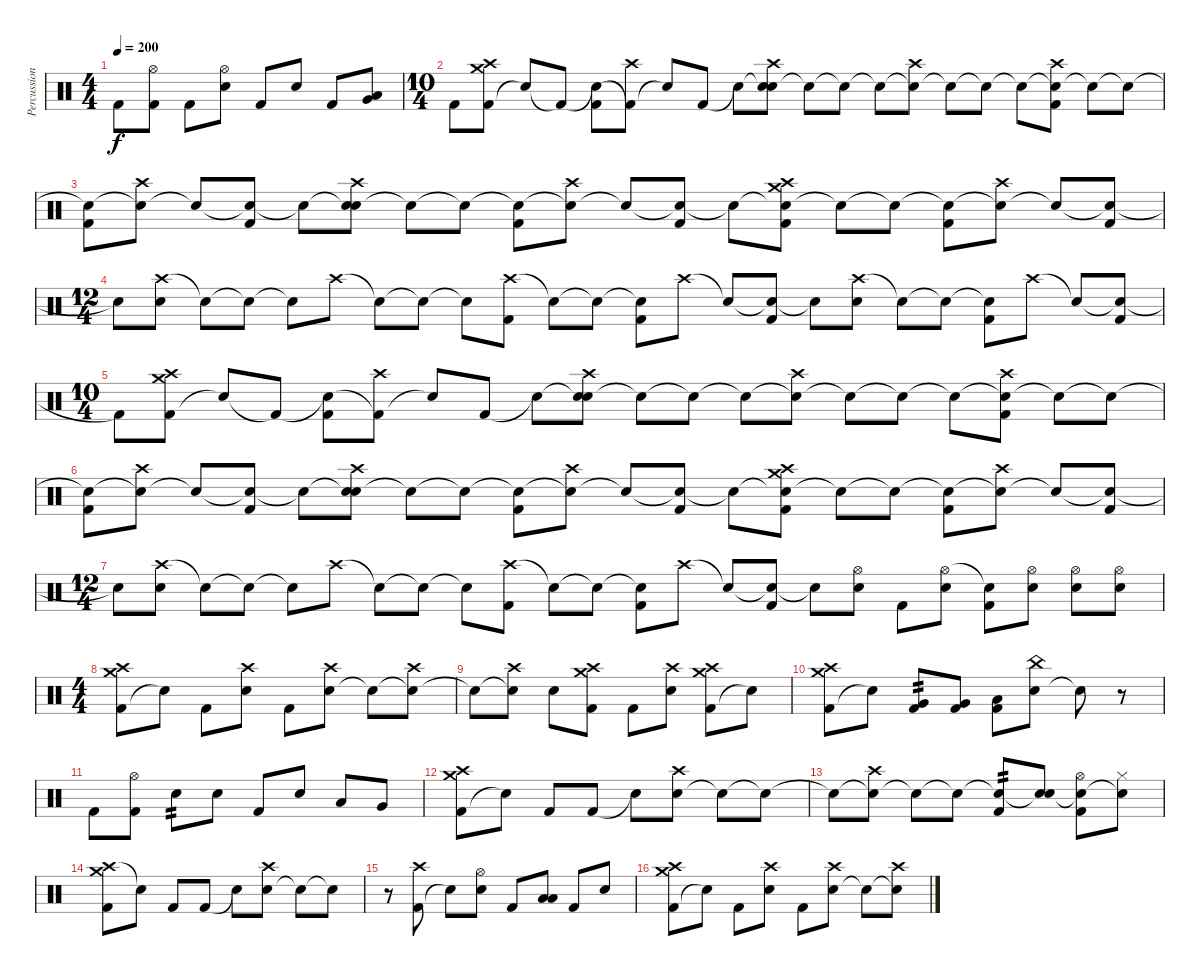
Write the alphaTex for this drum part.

\track ("Percussion" "Percussion") {instrument percussion}
\staff {score}
\articulation defaults
\ts (4 4)
\tempo 200
\clef neutral
\ks c "Kick (hit) 2".8{dy f}
("Hi-Hat (open)" "Kick (hit) 2"{t}).8 "Kick (hit) 2".8 ("Hi-Hat (open)" "Snare (hit) 2").8 "Kick (hit) 2".8 "Snare (hit) 2".8 "Kick (hit) 2".8 ("Low Floor Tom (hit)" "Very Low Tom (hit)").8 |
\ts (10 4)
"Kick (hit) 2".8 ("Kick (hit) 2" "Crash high (hit)" "Crash medium (hit)").8 "Snare (hit)"{t}.8 "Kick (hit) 2"{t}.8 ("Snare (hit)"{t} "Kick (hit) 2").8 ("Kick (hit) 2"{t} "Crash high (hit)").8 "Snare (hit)"{t}.8 "Kick (hit) 2".8 "Snare (hit)"{t}.8 ("Snare (hit)"{t} "Snare (hit) 2" "Crash high (hit)").8 "Snare (hit)"{t}.8 "Snare (hit)"{t}.8 "Snare (hit)"{t}.8 ("Snare (hit)"{t} "Crash high (hit)").8 "Snare (hit)"{t}.8 "Snare (hit)"{t}.8 "Snare (hit)"{t}.8 ("Snare (hit)"{t} "Kick (hit) 2" "Crash high (hit)").8 "Snare (hit)"{t}.8 "Snare (hit)"{t}.8 |
("Snare (hit)"{t} "Kick (hit) 2").8 ("Snare (hit)"{t} "Crash high (hit)").8 "Snare (hit)"{t}.8 ("Snare (hit)"{t} "Kick (hit) 2").8 "Snare (hit)"{t}.8 ("Snare (hit)"{t} "Crash high (hit)" "Snare (hit) 2").8 "Snare (hit)"{t}.8 "Snare (hit)"{t}.8 ("Snare (hit)"{t} "Kick (hit) 2").8 ("Snare (hit)"{t} "Crash high (hit)").8 "Snare (hit)"{t}.8 ("Snare (hit)"{t} "Kick (hit) 2").8 "Snare (hit)"{t}.8 ("Snare (hit)"{t} "Crash medium (hit)" "Crash high (hit)" "Kick (hit) 2").8 "Snare (hit)"{t}.8 "Snare (hit)"{t}.8 ("Snare (hit)"{t} "Kick (hit) 2").8 ("Snare (hit)"{t} "Crash high (hit)").8 "Snare (hit)"{t}.8 ("Snare (hit)"{t} "Kick (hit) 2").8 |
\ts (12 4)
"Snare (hit)"{t}.8 ("Crash high (hit)" "Snare (hit) 2").8 "Snare (hit)"{t}.8 "Snare (hit)"{t}.8 "Snare (hit)"{t}.8 "Crash high (hit)".8 "Snare (hit)"{t}.8 "Snare (hit)"{t}.8 "Snare (hit)"{t}.8 ("Crash high (hit)" "Kick (hit) 2").8 "Snare (hit)"{t}.8 "Snare (hit)"{t}.8 ("Snare (hit)"{t} "Kick (hit) 2").8 "Crash high (hit)".8 "Snare (hit)"{t}.8 ("Snare (hit)"{t} "Kick (hit) 2").8 "Snare (hit)"{t}.8 ("Crash high (hit)" "Snare (hit) 2").8 "Snare (hit)"{t}.8 "Snare (hit)"{t}.8 ("Snare (hit)"{t} "Kick (hit) 2").8 "Crash high (hit)".8 "Snare (hit)"{t}.8 ("Snare (hit)"{t} "Kick (hit) 2").8 |
\ts (10 4)
"Kick (hit) 2"{t}.8 ("Kick (hit) 2" "Crash high (hit)" "Crash medium (hit)").8 "Snare (hit)"{t}.8 "Kick (hit) 2"{t}.8 ("Snare (hit)"{t} "Kick (hit) 2").8 ("Kick (hit) 2"{t} "Crash high (hit)").8 "Snare (hit)"{t}.8 "Kick (hit) 2".8 "Snare (hit)"{t}.8 ("Snare (hit)"{t} "Snare (hit) 2" "Crash high (hit)").8 "Snare (hit)"{t}.8 "Snare (hit)"{t}.8 "Snare (hit)"{t}.8 ("Snare (hit)"{t} "Crash high (hit)").8 "Snare (hit)"{t}.8 "Snare (hit)"{t}.8 "Snare (hit)"{t}.8 ("Snare (hit)"{t} "Kick (hit) 2" "Crash high (hit)").8 "Snare (hit)"{t}.8 "Snare (hit)"{t}.8 |
("Snare (hit)"{t} "Kick (hit) 2").8 ("Snare (hit)"{t} "Crash high (hit)").8 "Snare (hit)"{t}.8 ("Snare (hit)"{t} "Kick (hit) 2").8 "Snare (hit)"{t}.8 ("Snare (hit)"{t} "Crash high (hit)" "Snare (hit) 2").8 "Snare (hit)"{t}.8 "Snare (hit)"{t}.8 ("Snare (hit)"{t} "Kick (hit) 2").8 ("Snare (hit)"{t} "Crash high (hit)").8 "Snare (hit)"{t}.8 ("Snare (hit)"{t} "Kick (hit) 2").8 "Snare (hit)"{t}.8 ("Snare (hit)"{t} "Crash medium (hit)" "Crash high (hit)" "Kick (hit) 2").8 "Snare (hit)"{t}.8 "Snare (hit)"{t}.8 ("Snare (hit)"{t} "Kick (hit) 2").8 ("Snare (hit)"{t} "Crash high (hit)").8 "Snare (hit)"{t}.8 ("Snare (hit)"{t} "Kick (hit) 2").8 |
\ts (12 4)
"Snare (hit)"{t}.8 ("Crash high (hit)" "Snare (hit) 2").8 "Snare (hit)"{t}.8 "Snare (hit)"{t}.8 "Snare (hit)"{t}.8 "Crash high (hit)".8 "Snare (hit)"{t}.8 "Snare (hit)"{t}.8 "Snare (hit)"{t}.8 ("Crash high (hit)" "Kick (hit) 2").8 "Snare (hit)"{t}.8 "Snare (hit)"{t}.8 ("Snare (hit)"{t} "Kick (hit) 2").8 "Crash high (hit)".8 "Snare (hit)"{t}.8 ("Snare (hit)"{t} "Kick (hit) 2").8 "Snare (hit)"{t}.8 ("Hi-Hat (open)" "Snare (hit) 2").8 "Kick (hit) 2".8 ("Hi-Hat (open)" "Snare (hit) 2").8 ("Snare (hit)"{t} "Kick (hit) 2").8 ("Hi-Hat (open)" "Snare (hit) 2").8 ("Hi-Hat (open)" "Snare (hit) 2").8 ("Hi-Hat (open)" "Snare (hit) 2").8 |
\ts (4 4)
("Kick (hit) 2" "Crash medium (hit)" "Crash high (hit)").8 "Snare (hit)"{t}.8 "Kick (hit) 2".8 ("Snare (hit) 2" "Crash high (hit)").8 "Kick (hit) 2".8 ("Snare (hit) 2" "Crash high (hit)").8 "Snare (hit)"{t}.8 ("Snare (hit)"{t} "Crash high (hit)").8 |
"Snare (hit)"{t}.8 ("Snare (hit)"{t} "Crash high (hit)").8 "Snare (hit) 2".8 ("Kick (hit) 2" "Crash high (hit)" "Crash medium (hit)").8 "Kick (hit) 2".8 ("Snare (hit) 2" "Crash high (hit)").8 ("Kick (hit) 2" "Crash medium (hit)" "Crash high (hit)").8 "Snare (hit)"{t}.8 |
("Kick (hit) 2" "Crash medium (hit)" "Crash high (hit)").8 "Snare (hit)"{t}.8 ("Very Low Tom (hit)" "Kick (hit) 2").8{tp 2} ("Very Low Tom (hit)" "Kick (hit) 2").8 ("Low Floor Tom (hit)" "Kick (hit) 2").8 ("Snare (hit) 2" "China (hit)").8 "Snare (hit)"{t}.8 r.8 |
"Kick (hit) 2".8 ("Kick (hit) 2" "Hi-Hat (open)").8 "Snare (hit) 2".8{tp 2} "Snare (hit) 2".8 "Kick (hit) 2".8 "Snare (hit) 2".8 "Low Tom (hit)".8 "Very Low Tom (hit)".8 |
("Kick (hit) 2" "Crash medium (hit)" "Crash high (hit)").8 "Snare (hit)"{t}.8 "Kick (hit) 2".8 "Kick (hit) 2".8 "Snare (hit)"{t}.8 ("Snare (hit) 2" "Crash high (hit)").8 "Snare (hit)"{t}.8 "Snare (hit)"{t}.8 |
"Snare (hit)"{t}.8 ("Snare (hit)"{t} "Crash high (hit)").8 "Snare (hit)"{t}.8 "Snare (hit)"{t}.8 ("Snare (hit)"{t} "Kick (hit) 2").8{tp 2} ("Snare (hit)"{t} "Snare (hit) 2").8 ("Snare (hit)"{t} "Kick (hit) 2" "Hi-Hat (open)").8 ("Snare (hit)"{t} "Hi-Hat (closed)").8 |
("Crash high (hit)" "Kick (hit) 2" "Crash medium (hit)").8 "Snare (hit)"{t}.8 "Kick (hit) 2".8 "Kick (hit) 2".8 "Snare (hit)"{t}.8 ("Snare (hit) 2" "Crash high (hit)").8 "Snare (hit)"{t}.8 "Snare (hit)"{t}.8 |
r.8 ("Kick (hit) 2" "Crash high (hit)").8 "Snare (hit)"{t}.8 ("Snare (hit) 2" "Hi-Hat (open)").8 "Kick (hit) 2".8 ("Low Tom (hit)" "Low Floor Tom (hit)").8 "Kick (hit) 2".8 "Snare (hit) 2".8 |
("Kick (hit) 2" "Crash medium (hit)" "Crash high (hit)").8 "Snare (hit)"{t}.8 "Kick (hit) 2".8 ("Snare (hit) 2" "Crash high (hit)").8 "Kick (hit) 2".8 ("Snare (hit) 2" "Crash high (hit)").8 "Snare (hit)"{t}.8 ("Snare (hit)"{t} "Crash high (hit)").8
